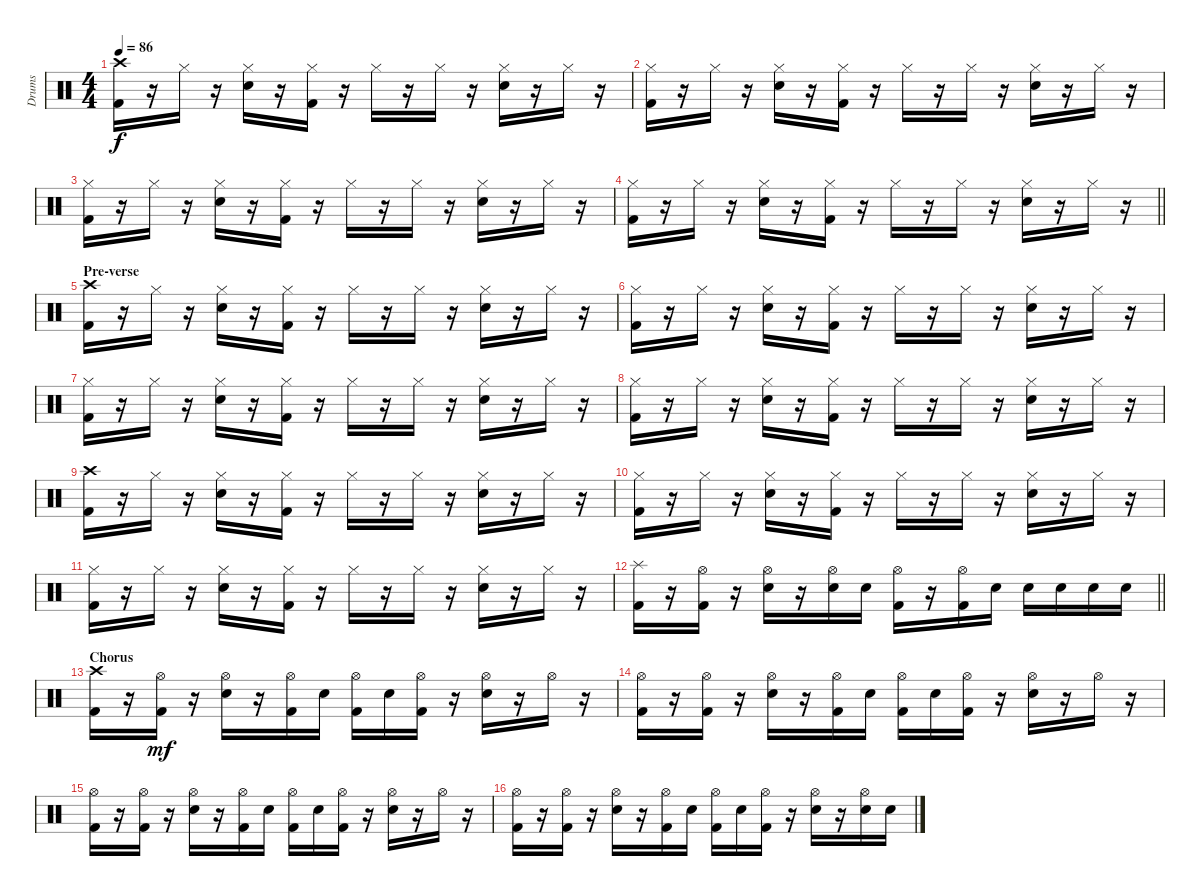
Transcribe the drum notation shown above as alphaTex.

\track ("Drums" "Drums") {instrument percussion}
\staff {score}
\articulation defaults
\ts (4 4)
\tempo 86
\clef neutral
\ks c
("Crash high (hit)" "Kick (hit) 2").16{dy f} r.16 "Hi-Hat (closed)".16 r.16 ("Hi-Hat (closed)" "Electric Snare (hit)").16 r.16 ("Hi-Hat (closed)" "Kick (hit) 2").16 r.16 "Hi-Hat (closed)".16 r.16 "Hi-Hat (closed)".16 r.16 ("Hi-Hat (closed)" "Electric Snare (hit)").16 r.16 "Hi-Hat (closed)".16 r.16 |
("Hi-Hat (closed)" "Kick (hit) 2").16 r.16 "Hi-Hat (closed)".16 r.16 ("Hi-Hat (closed)" "Electric Snare (hit)").16 r.16 ("Hi-Hat (closed)" "Kick (hit) 2").16 r.16 "Hi-Hat (closed)".16 r.16 "Hi-Hat (closed)".16 r.16 ("Hi-Hat (closed)" "Electric Snare (hit)").16 r.16 "Hi-Hat (closed)".16 r.16 |
("Hi-Hat (closed)" "Kick (hit) 2").16 r.16 "Hi-Hat (closed)".16 r.16 ("Hi-Hat (closed)" "Electric Snare (hit)").16 r.16 ("Hi-Hat (closed)" "Kick (hit) 2").16 r.16 "Hi-Hat (closed)".16 r.16 "Hi-Hat (closed)".16 r.16 ("Hi-Hat (closed)" "Electric Snare (hit)").16 r.16 "Hi-Hat (closed)".16 r.16 |
\barLineRight lightlight
("Hi-Hat (closed)" "Kick (hit) 2").16 r.16 "Hi-Hat (closed)".16 r.16 ("Hi-Hat (closed)" "Electric Snare (hit)").16 r.16 ("Hi-Hat (closed)" "Kick (hit) 2").16 r.16 "Hi-Hat (closed)".16 r.16 "Hi-Hat (closed)".16 r.16 ("Hi-Hat (closed)" "Electric Snare (hit)").16 r.16 "Hi-Hat (closed)".16 r.16 |
\section ("" "Pre-verse")
("Crash high (hit)" "Kick (hit) 2").16 r.16 "Hi-Hat (closed)".16 r.16 ("Hi-Hat (closed)" "Electric Snare (hit)").16 r.16 ("Hi-Hat (closed)" "Kick (hit) 2").16 r.16 "Hi-Hat (closed)".16 r.16 "Hi-Hat (closed)".16 r.16 ("Hi-Hat (closed)" "Electric Snare (hit)").16 r.16 "Hi-Hat (closed)".16 r.16 |
("Hi-Hat (closed)" "Kick (hit) 2").16 r.16 "Hi-Hat (closed)".16 r.16 ("Hi-Hat (closed)" "Electric Snare (hit)").16 r.16 ("Hi-Hat (closed)" "Kick (hit) 2").16 r.16 "Hi-Hat (closed)".16 r.16 "Hi-Hat (closed)".16 r.16 ("Hi-Hat (closed)" "Electric Snare (hit)").16 r.16 "Hi-Hat (closed)".16 r.16 |
("Hi-Hat (closed)" "Kick (hit) 2").16 r.16 "Hi-Hat (closed)".16 r.16 ("Hi-Hat (closed)" "Electric Snare (hit)").16 r.16 ("Hi-Hat (closed)" "Kick (hit) 2").16 r.16 "Hi-Hat (closed)".16 r.16 "Hi-Hat (closed)".16 r.16 ("Hi-Hat (closed)" "Electric Snare (hit)").16 r.16 "Hi-Hat (closed)".16 r.16 |
("Hi-Hat (closed)" "Kick (hit) 2").16 r.16 "Hi-Hat (closed)".16 r.16 ("Hi-Hat (closed)" "Electric Snare (hit)").16 r.16 ("Hi-Hat (closed)" "Kick (hit) 2").16 r.16 "Hi-Hat (closed)".16 r.16 "Hi-Hat (closed)".16 r.16 ("Hi-Hat (closed)" "Electric Snare (hit)").16 r.16 "Hi-Hat (closed)".16 r.16 |
("Crash high (hit)" "Kick (hit) 2").16 r.16 "Hi-Hat (closed)".16 r.16 ("Hi-Hat (closed)" "Electric Snare (hit)").16 r.16 ("Hi-Hat (closed)" "Kick (hit) 2").16 r.16 "Hi-Hat (closed)".16 r.16 "Hi-Hat (closed)".16 r.16 ("Hi-Hat (closed)" "Electric Snare (hit)").16 r.16 "Hi-Hat (closed)".16 r.16 |
("Hi-Hat (closed)" "Kick (hit) 2").16 r.16 "Hi-Hat (closed)".16 r.16 ("Hi-Hat (closed)" "Electric Snare (hit)").16 r.16 ("Hi-Hat (closed)" "Kick (hit) 2").16 r.16 "Hi-Hat (closed)".16 r.16 "Hi-Hat (closed)".16 r.16 ("Hi-Hat (closed)" "Electric Snare (hit)").16 r.16 "Hi-Hat (closed)".16 r.16 |
("Hi-Hat (closed)" "Kick (hit) 2").16 r.16 "Hi-Hat (closed)".16 r.16 ("Hi-Hat (closed)" "Electric Snare (hit)").16 r.16 ("Hi-Hat (closed)" "Kick (hit) 2").16 r.16 "Hi-Hat (closed)".16 r.16 "Hi-Hat (closed)".16 r.16 ("Hi-Hat (closed)" "Electric Snare (hit)").16 r.16 "Hi-Hat (closed)".16 r.16 |
\barLineRight lightlight
("Splash (hit)" "Kick (hit) 2").16 r.16 ("Hi-Hat (open)" "Kick (hit) 2").16 r.16 ("Hi-Hat (open)" "Electric Snare (hit)").16 r.16 ("Hi-Hat (open)" "Electric Snare (hit)").16 "Electric Snare (hit)".16 ("Hi-Hat (open)" "Kick (hit) 2").16 r.16 ("Hi-Hat (open)" "Kick (hit) 2").16 "Electric Snare (hit)".16 "Electric Snare (hit)".16 "Electric Snare (hit)".16 "Electric Snare (hit)".16 "Electric Snare (hit)".16 |
\section ("" "Chorus")
("Crash high (hit)" "Kick (hit) 2").16 r.16 ("Hi-Hat (open)" "Kick (hit) 2").16{dy mf} r.16 ("Hi-Hat (open)" "Electric Snare (hit)").16 r.16 ("Hi-Hat (open)" "Kick (hit) 2").16 "Electric Snare (hit)".16 ("Hi-Hat (open)" "Kick (hit) 2").16 "Electric Snare (hit)".16 ("Hi-Hat (open)" "Kick (hit) 2").16 r.16 ("Hi-Hat (open)" "Electric Snare (hit)").16 r.16 "Hi-Hat (open)".16 r.16 |
("Hi-Hat (open)" "Kick (hit) 2").16 r.16 ("Hi-Hat (open)" "Kick (hit) 2").16 r.16 ("Hi-Hat (open)" "Electric Snare (hit)").16 r.16 ("Hi-Hat (open)" "Kick (hit) 2").16 "Electric Snare (hit)".16 ("Hi-Hat (open)" "Kick (hit) 2").16 "Electric Snare (hit)".16 ("Hi-Hat (open)" "Kick (hit) 2").16 r.16 ("Hi-Hat (open)" "Electric Snare (hit)").16 r.16 "Hi-Hat (open)".16 r.16 |
("Hi-Hat (open)" "Kick (hit) 2").16 r.16 ("Hi-Hat (open)" "Kick (hit) 2").16 r.16 ("Hi-Hat (open)" "Electric Snare (hit)").16 r.16 ("Hi-Hat (open)" "Kick (hit) 2").16 "Electric Snare (hit)".16 ("Hi-Hat (open)" "Kick (hit) 2").16 "Electric Snare (hit)".16 ("Hi-Hat (open)" "Kick (hit) 2").16 r.16 ("Hi-Hat (open)" "Electric Snare (hit)").16 r.16 "Hi-Hat (open)".16 r.16 |
("Hi-Hat (open)" "Kick (hit) 2").16 r.16 ("Hi-Hat (open)" "Kick (hit) 2").16 r.16 ("Hi-Hat (open)" "Electric Snare (hit)").16 r.16 ("Hi-Hat (open)" "Kick (hit) 2").16 "Electric Snare (hit)".16 ("Hi-Hat (open)" "Kick (hit) 2").16 "Electric Snare (hit)".16 ("Hi-Hat (open)" "Kick (hit) 2").16 r.16 ("Hi-Hat (open)" "Electric Snare (hit)").16 r.16 ("Hi-Hat (open)" "Electric Snare (hit)").16 "Electric Snare (hit)".16
